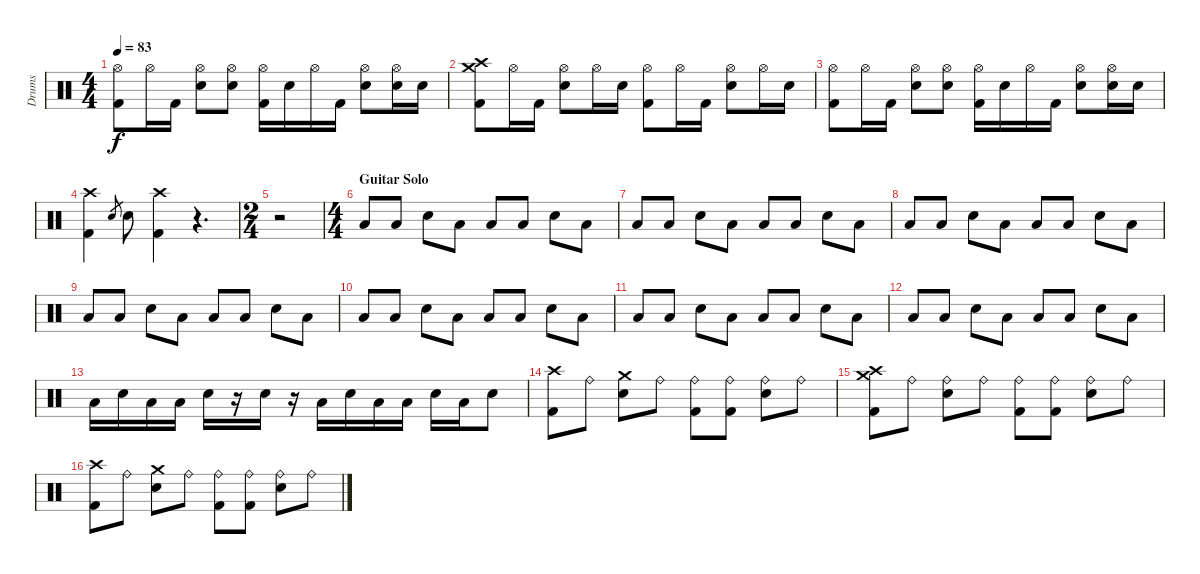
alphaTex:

\track ("Drums" "Drums") {instrument percussion}
\staff {score}
\articulation defaults
\ts (4 4)
\tempo 83
\clef neutral
\ks c
("Hi-Hat (open)" "Kick (hit) 2").8{dy f} "Hi-Hat (open)".16 "Kick (hit) 2".16 ("Hi-Hat (open)" "Electric Snare (hit)").8 ("Hi-Hat (open)" "Electric Snare (hit)").8 ("Hi-Hat (open)" "Kick (hit) 2").16 "Electric Snare (hit)".16 "Hi-Hat (open)".16 "Kick (hit) 2".16 ("Hi-Hat (open)" "Electric Snare (hit)").8 ("Hi-Hat (open)" "Electric Snare (hit)").16 "Electric Snare (hit)".16 |
("Crash high (hit)" "Crash medium (hit)" "Kick (hit) 2").8 "Hi-Hat (open)".16 "Kick (hit) 2".16 ("Hi-Hat (open)" "Electric Snare (hit)").8 "Hi-Hat (open)".16 "Electric Snare (hit)".16 ("Hi-Hat (open)" "Kick (hit) 2").8 "Hi-Hat (open)".16 "Kick (hit) 2".16 ("Hi-Hat (open)" "Electric Snare (hit)").8 "Hi-Hat (open)".16 "Electric Snare (hit)".16 |
("Hi-Hat (open)" "Kick (hit) 2").8 "Hi-Hat (open)".16 "Kick (hit) 2".16 ("Hi-Hat (open)" "Electric Snare (hit)").8 ("Hi-Hat (open)" "Electric Snare (hit)").8 ("Hi-Hat (open)" "Kick (hit) 2").16 "Electric Snare (hit)".16 "Hi-Hat (open)".16 "Kick (hit) 2".16 ("Hi-Hat (open)" "Electric Snare (hit)").8 ("Hi-Hat (open)" "Electric Snare (hit)").16 "Electric Snare (hit)".16 |
("Crash high (hit)" "Kick (hit) 2").4 "Electric Snare (hit)".8{gr} "Electric Snare (hit)".8 ("Crash high (hit)" "Kick (hit) 2").4 r.4{d} |
\ts (2 4)
r.2 |
\ts (4 4)
\section ("" "Guitar Solo")
"Low Floor Tom (hit)".8 "Low Floor Tom (hit)".8 "Electric Snare (hit)".8 "Low Floor Tom (hit)".8 "Low Floor Tom (hit)".8 "Low Floor Tom (hit)".8 "Electric Snare (hit)".8 "Low Floor Tom (hit)".8 |
"Low Floor Tom (hit)".8 "Low Floor Tom (hit)".8 "Electric Snare (hit)".8 "Low Floor Tom (hit)".8 "Low Floor Tom (hit)".8 "Low Floor Tom (hit)".8 "Electric Snare (hit)".8 "Low Floor Tom (hit)".8 |
"Low Floor Tom (hit)".8 "Low Floor Tom (hit)".8 "Electric Snare (hit)".8 "Low Floor Tom (hit)".8 "Low Floor Tom (hit)".8 "Low Floor Tom (hit)".8 "Electric Snare (hit)".8 "Low Floor Tom (hit)".8 |
"Low Floor Tom (hit)".8 "Low Floor Tom (hit)".8 "Electric Snare (hit)".8 "Low Floor Tom (hit)".8 "Low Floor Tom (hit)".8 "Low Floor Tom (hit)".8 "Electric Snare (hit)".8 "Low Floor Tom (hit)".8 |
"Low Floor Tom (hit)".8 "Low Floor Tom (hit)".8 "Electric Snare (hit)".8 "Low Floor Tom (hit)".8 "Low Floor Tom (hit)".8 "Low Floor Tom (hit)".8 "Electric Snare (hit)".8 "Low Floor Tom (hit)".8 |
"Low Floor Tom (hit)".8 "Low Floor Tom (hit)".8 "Electric Snare (hit)".8 "Low Floor Tom (hit)".8 "Low Floor Tom (hit)".8 "Low Floor Tom (hit)".8 "Electric Snare (hit)".8 "Low Floor Tom (hit)".8 |
"Low Floor Tom (hit)".8 "Low Floor Tom (hit)".8 "Electric Snare (hit)".8 "Low Floor Tom (hit)".8 "Low Floor Tom (hit)".8 "Low Floor Tom (hit)".8 "Electric Snare (hit)".8 "Low Floor Tom (hit)".8 |
"Low Floor Tom (hit)".16 "Electric Snare (hit)".16 "Low Floor Tom (hit)".16 "Low Floor Tom (hit)".16 "Electric Snare (hit)".16 r.16 "Electric Snare (hit)".16 r.16 "Low Floor Tom (hit)".16 "Electric Snare (hit)".16 "Low Floor Tom (hit)".16 "Low Floor Tom (hit)".16 "Electric Snare (hit)".16 "Low Floor Tom (hit)".16 "Electric Snare (hit)".8 |
("Crash high (hit)" "Kick (hit) 2").8 "Ride (bell)".8 ("Crash medium (hit)" "Electric Snare (hit)").8 "Ride (bell)".8 ("Ride (bell)" "Kick (hit) 2").8 ("Ride (bell)" "Kick (hit) 2").8 ("Ride (bell)" "Electric Snare (hit)").8 "Ride (bell)".8 |
("Crash high (hit)" "Crash medium (hit)" "Kick (hit) 2").8 "Ride (bell)".8 ("Ride (bell)" "Electric Snare (hit)").8 "Ride (bell)".8 ("Ride (bell)" "Kick (hit) 2").8 ("Ride (bell)" "Kick (hit) 2").8 ("Ride (bell)" "Electric Snare (hit)").8 "Ride (bell)".8 |
("Crash high (hit)" "Kick (hit) 2").8 "Ride (bell)".8 ("Crash medium (hit)" "Electric Snare (hit)").8 "Ride (bell)".8 ("Ride (bell)" "Kick (hit) 2").8 ("Ride (bell)" "Kick (hit) 2").8 ("Ride (bell)" "Electric Snare (hit)").8 "Ride (bell)".8
